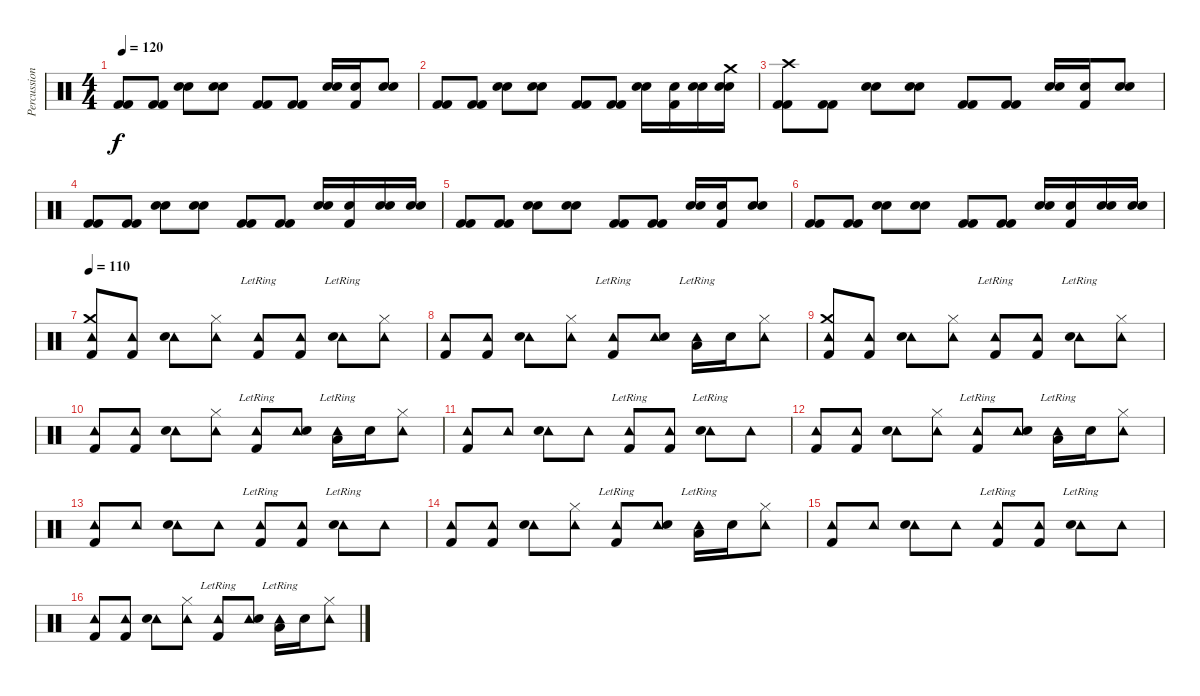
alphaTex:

\track ("Percussion" "Percussion") {instrument percussion}
\staff {score}
\articulation defaults
\ts (4 4)
\tempo 120
\clef neutral
\ks c
("Kick (hit) 2" "Kick (hit) 2").8{dy f} ("Kick (hit) 2" "Kick (hit) 2").8 ("Electric Snare (hit)" "Electric Snare (hit)").8 ("Electric Snare (hit)" "Electric Snare (hit)").8 ("Kick (hit) 2" "Kick (hit) 2").8 ("Kick (hit) 2" "Kick (hit) 2").8 ("Electric Snare (hit)" "Electric Snare (hit)").16 ("Electric Snare (hit)" "Kick (hit) 2").16 ("Electric Snare (hit)" "Electric Snare (hit)").8 |
("Kick (hit) 2" "Kick (hit) 2").8 ("Kick (hit) 2" "Kick (hit) 2").8 ("Electric Snare (hit)" "Electric Snare (hit)").8 ("Electric Snare (hit)" "Electric Snare (hit)").8 ("Kick (hit) 2" "Kick (hit) 2").8 ("Kick (hit) 2" "Kick (hit) 2").8 ("Electric Snare (hit)" "Electric Snare (hit)").16 ("Electric Snare (hit)" "Kick (hit) 2").16 ("Electric Snare (hit)" "Electric Snare (hit)").16 ("Crash medium (hit)" "Electric Snare (hit)" "Electric Snare (hit)").16 |
("Crash high (hit)" "Kick (hit) 2" "Kick (hit) 2").8 ("Kick (hit) 2" "Kick (hit) 2").8 ("Electric Snare (hit)" "Electric Snare (hit)").8 ("Electric Snare (hit)" "Electric Snare (hit)").8 ("Kick (hit) 2" "Kick (hit) 2").8 ("Kick (hit) 2" "Kick (hit) 2").8 ("Electric Snare (hit)" "Electric Snare (hit)").16 ("Electric Snare (hit)" "Kick (hit) 2").16 ("Electric Snare (hit)" "Electric Snare (hit)").8 |
("Kick (hit) 2" "Kick (hit) 2").8 ("Kick (hit) 2" "Kick (hit) 2").8 ("Electric Snare (hit)" "Electric Snare (hit)").8 ("Electric Snare (hit)" "Electric Snare (hit)").8 ("Kick (hit) 2" "Kick (hit) 2").8 ("Kick (hit) 2" "Kick (hit) 2").8 ("Electric Snare (hit)" "Electric Snare (hit)").16 ("Electric Snare (hit)" "Kick (hit) 2").16 ("Electric Snare (hit)" "Electric Snare (hit)").16 ("Electric Snare (hit)" "Electric Snare (hit)").16 |
("Kick (hit) 2" "Kick (hit) 2").8 ("Kick (hit) 2" "Kick (hit) 2").8 ("Electric Snare (hit)" "Electric Snare (hit)").8 ("Electric Snare (hit)" "Electric Snare (hit)").8 ("Kick (hit) 2" "Kick (hit) 2").8 ("Kick (hit) 2" "Kick (hit) 2").8 ("Electric Snare (hit)" "Electric Snare (hit)").16 ("Electric Snare (hit)" "Kick (hit) 2").16 ("Electric Snare (hit)" "Electric Snare (hit)").8 |
("Kick (hit) 2" "Kick (hit) 2").8 ("Kick (hit) 2" "Kick (hit) 2").8 ("Electric Snare (hit)" "Electric Snare (hit)").8 ("Electric Snare (hit)" "Electric Snare (hit)").8 ("Kick (hit) 2" "Kick (hit) 2").8 ("Kick (hit) 2" "Kick (hit) 2").8 ("Electric Snare (hit)" "Electric Snare (hit)").16 ("Electric Snare (hit)" "Kick (hit) 2").16 ("Electric Snare (hit)" "Electric Snare (hit)").16 ("Electric Snare (hit)" "Electric Snare (hit)").16 |
\tempo 110
("Tambourine (hit)" "Crash medium (hit)" "Kick (hit) 2").8 ("Tambourine (hit)" "Kick (hit) 2").8 ("Tambourine (hit)" "Electric Snare (hit)").8 ("Tambourine (hit)" "Hi-Hat (closed)").8 ("Tambourine (hit)"{lr} "Kick (hit) 2").8 ("Tambourine (hit)" "Kick (hit) 2").8 ("Tambourine (hit)"{lr} "Electric Snare (hit)").8 ("Tambourine (hit)" "Hi-Hat (closed)").8 |
("Tambourine (hit)" "Kick (hit) 2").8 ("Tambourine (hit)" "Kick (hit) 2").8 ("Tambourine (hit)" "Electric Snare (hit)").8 ("Tambourine (hit)" "Hi-Hat (closed)").8 ("Tambourine (hit)"{lr} "Kick (hit) 2").8 ("Tambourine (hit)" "Electric Snare (hit)").8 ("Tambourine (hit)"{lr} "Low Tom (hit)").16 "Electric Snare (hit)".16 ("Tambourine (hit)" "Hi-Hat (closed)").8 |
("Tambourine (hit)" "Crash medium (hit)" "Kick (hit) 2").8 ("Tambourine (hit)" "Kick (hit) 2").8 ("Tambourine (hit)" "Electric Snare (hit)").8 ("Tambourine (hit)" "Hi-Hat (closed)").8 ("Tambourine (hit)"{lr} "Kick (hit) 2").8 ("Tambourine (hit)" "Kick (hit) 2").8 ("Tambourine (hit)"{lr} "Electric Snare (hit)").8 ("Tambourine (hit)" "Hi-Hat (closed)").8 |
("Tambourine (hit)" "Kick (hit) 2").8 ("Tambourine (hit)" "Kick (hit) 2").8 ("Tambourine (hit)" "Electric Snare (hit)").8 ("Tambourine (hit)" "Hi-Hat (closed)").8 ("Tambourine (hit)"{lr} "Kick (hit) 2").8 ("Tambourine (hit)" "Electric Snare (hit)").8 ("Tambourine (hit)"{lr} "Low Tom (hit)").16 "Electric Snare (hit)".16 ("Tambourine (hit)" "Hi-Hat (closed)").8 |
("Tambourine (hit)" "Kick (hit) 2").8 "Tambourine (hit)".8 ("Tambourine (hit)" "Electric Snare (hit)").8 "Tambourine (hit)".8 ("Tambourine (hit)"{lr} "Kick (hit) 2").8 ("Tambourine (hit)" "Kick (hit) 2").8 ("Tambourine (hit)"{lr} "Electric Snare (hit)").8 "Tambourine (hit)".8 |
("Tambourine (hit)" "Kick (hit) 2").8 ("Tambourine (hit)" "Kick (hit) 2").8 ("Tambourine (hit)" "Electric Snare (hit)").8 ("Tambourine (hit)" "Hi-Hat (closed)").8 ("Tambourine (hit)"{lr} "Kick (hit) 2").8 ("Tambourine (hit)" "Electric Snare (hit)").8 ("Tambourine (hit)"{lr} "Low Tom (hit)").16 "Electric Snare (hit)".16 ("Tambourine (hit)" "Hi-Hat (closed)").8 |
("Tambourine (hit)" "Kick (hit) 2").8 "Tambourine (hit)".8 ("Tambourine (hit)" "Electric Snare (hit)").8 "Tambourine (hit)".8 ("Tambourine (hit)"{lr} "Kick (hit) 2").8 ("Tambourine (hit)" "Kick (hit) 2").8 ("Tambourine (hit)"{lr} "Electric Snare (hit)").8 "Tambourine (hit)".8 |
("Tambourine (hit)" "Kick (hit) 2").8 ("Tambourine (hit)" "Kick (hit) 2").8 ("Tambourine (hit)" "Electric Snare (hit)").8 ("Tambourine (hit)" "Hi-Hat (closed)").8 ("Tambourine (hit)"{lr} "Kick (hit) 2").8 ("Tambourine (hit)" "Electric Snare (hit)").8 ("Tambourine (hit)"{lr} "Low Tom (hit)").16 "Electric Snare (hit)".16 ("Tambourine (hit)" "Hi-Hat (closed)").8 |
("Tambourine (hit)" "Kick (hit) 2").8 "Tambourine (hit)".8 ("Tambourine (hit)" "Electric Snare (hit)").8 "Tambourine (hit)".8 ("Tambourine (hit)"{lr} "Kick (hit) 2").8 ("Tambourine (hit)" "Kick (hit) 2").8 ("Tambourine (hit)"{lr} "Electric Snare (hit)").8 "Tambourine (hit)".8 |
("Tambourine (hit)" "Kick (hit) 2").8 ("Tambourine (hit)" "Kick (hit) 2").8 ("Tambourine (hit)" "Electric Snare (hit)").8 ("Tambourine (hit)" "Hi-Hat (closed)").8 ("Tambourine (hit)"{lr} "Kick (hit) 2").8 ("Tambourine (hit)" "Electric Snare (hit)").8 ("Tambourine (hit)"{lr} "Low Tom (hit)").16 "Electric Snare (hit)".16 ("Tambourine (hit)" "Hi-Hat (closed)").8
